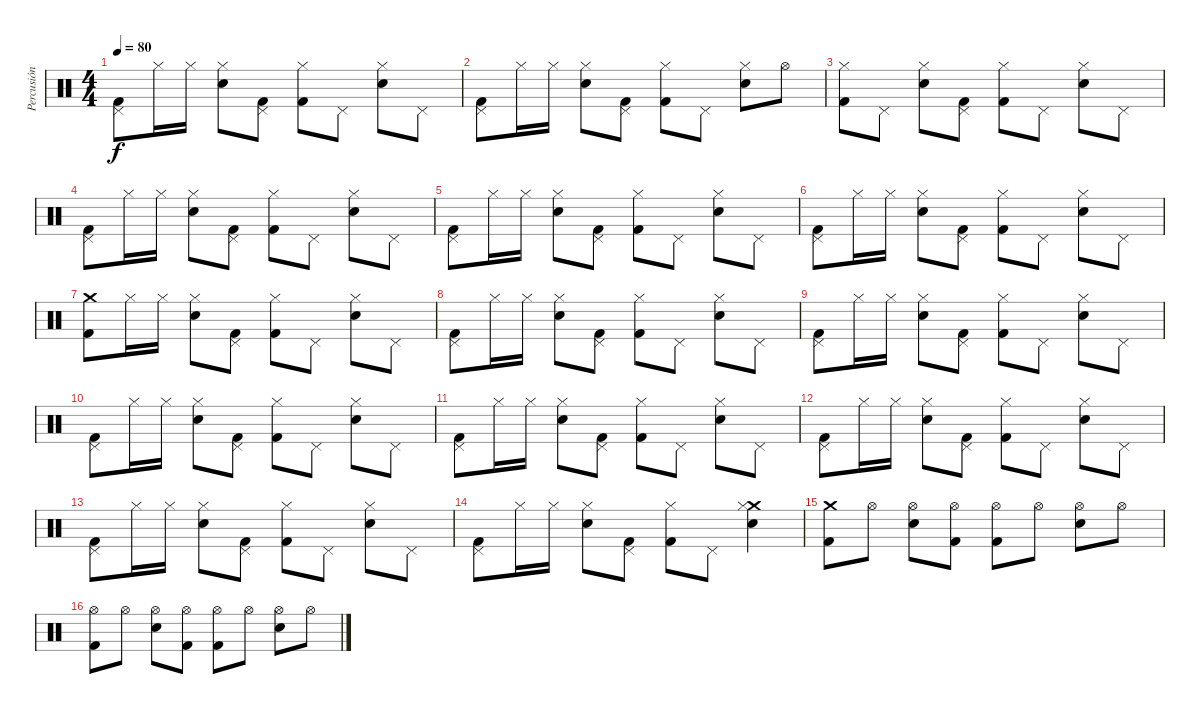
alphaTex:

\track ("Percusión" "Percusión") {instrument percussion}
\staff {score}
\articulation defaults
\ts (4 4)
\tempo 80
\clef neutral
\ks c
("Pedal Hi-Hat (hit)" "Kick (hit) 2").8{dy f} "Hi-Hat (closed)".16 "Hi-Hat (closed)".16 ("Hi-Hat (closed)" "Snare (hit) 2").8 ("Pedal Hi-Hat (hit)" "Kick (hit) 2").8 ("Hi-Hat (closed)" "Kick (hit) 2").8 "Pedal Hi-Hat (hit)".8 ("Hi-Hat (closed)" "Snare (hit) 2").8 "Pedal Hi-Hat (hit)".8 |
("Pedal Hi-Hat (hit)" "Kick (hit) 2").8 "Hi-Hat (closed)".16 "Hi-Hat (closed)".16 ("Hi-Hat (closed)" "Snare (hit) 2").8 ("Pedal Hi-Hat (hit)" "Kick (hit) 2").8 ("Hi-Hat (closed)" "Kick (hit) 2").8 "Pedal Hi-Hat (hit)".8 ("Hi-Hat (closed)" "Snare (hit) 2").8 "Hi-Hat (open)".8 |
("Hi-Hat (closed)" "Kick (hit) 2").8 "Pedal Hi-Hat (hit)".8 ("Hi-Hat (closed)" "Snare (hit) 2").8 ("Pedal Hi-Hat (hit)" "Kick (hit) 2").8 ("Hi-Hat (closed)" "Kick (hit) 2").8 "Pedal Hi-Hat (hit)".8 ("Hi-Hat (closed)" "Snare (hit) 2").8 "Pedal Hi-Hat (hit)".8 |
("Pedal Hi-Hat (hit)" "Kick (hit) 2").8 "Hi-Hat (closed)".16 "Hi-Hat (closed)".16 ("Hi-Hat (closed)" "Snare (hit) 2").8 ("Pedal Hi-Hat (hit)" "Kick (hit) 2").8 ("Hi-Hat (closed)" "Kick (hit) 2").8 "Pedal Hi-Hat (hit)".8 ("Hi-Hat (closed)" "Snare (hit) 2").8 "Pedal Hi-Hat (hit)".8 |
("Pedal Hi-Hat (hit)" "Kick (hit) 2").8 "Hi-Hat (closed)".16 "Hi-Hat (closed)".16 ("Hi-Hat (closed)" "Snare (hit) 2").8 ("Pedal Hi-Hat (hit)" "Kick (hit) 2").8 ("Hi-Hat (closed)" "Kick (hit) 2").8 "Pedal Hi-Hat (hit)".8 ("Hi-Hat (closed)" "Snare (hit) 2").8 "Pedal Hi-Hat (hit)".8 |
("Pedal Hi-Hat (hit)" "Kick (hit) 2").8 "Hi-Hat (closed)".16 "Hi-Hat (closed)".16 ("Hi-Hat (closed)" "Snare (hit) 2").8 ("Pedal Hi-Hat (hit)" "Kick (hit) 2").8 ("Hi-Hat (closed)" "Kick (hit) 2").8 "Pedal Hi-Hat (hit)".8 ("Hi-Hat (closed)" "Snare (hit) 2").8 "Pedal Hi-Hat (hit)".8 |
("Crash medium (hit)" "Kick (hit) 2").8 "Hi-Hat (closed)".16 "Hi-Hat (closed)".16 ("Hi-Hat (closed)" "Snare (hit) 2").8 ("Pedal Hi-Hat (hit)" "Kick (hit) 2").8 ("Hi-Hat (closed)" "Kick (hit) 2").8 "Pedal Hi-Hat (hit)".8 ("Hi-Hat (closed)" "Snare (hit) 2").8 "Pedal Hi-Hat (hit)".8 |
("Pedal Hi-Hat (hit)" "Kick (hit) 2").8 "Hi-Hat (closed)".16 "Hi-Hat (closed)".16 ("Hi-Hat (closed)" "Snare (hit) 2").8 ("Pedal Hi-Hat (hit)" "Kick (hit) 2").8 ("Hi-Hat (closed)" "Kick (hit) 2").8 "Pedal Hi-Hat (hit)".8 ("Hi-Hat (closed)" "Snare (hit) 2").8 "Pedal Hi-Hat (hit)".8 |
("Pedal Hi-Hat (hit)" "Kick (hit) 2").8 "Hi-Hat (closed)".16 "Hi-Hat (closed)".16 ("Hi-Hat (closed)" "Snare (hit) 2").8 ("Pedal Hi-Hat (hit)" "Kick (hit) 2").8 ("Hi-Hat (closed)" "Kick (hit) 2").8 "Pedal Hi-Hat (hit)".8 ("Hi-Hat (closed)" "Snare (hit) 2").8 "Pedal Hi-Hat (hit)".8 |
("Pedal Hi-Hat (hit)" "Kick (hit) 2").8 "Hi-Hat (closed)".16 "Hi-Hat (closed)".16 ("Hi-Hat (closed)" "Snare (hit) 2").8 ("Pedal Hi-Hat (hit)" "Kick (hit) 2").8 ("Hi-Hat (closed)" "Kick (hit) 2").8 "Pedal Hi-Hat (hit)".8 ("Hi-Hat (closed)" "Snare (hit) 2").8 "Pedal Hi-Hat (hit)".8 |
("Pedal Hi-Hat (hit)" "Kick (hit) 2").8 "Hi-Hat (closed)".16 "Hi-Hat (closed)".16 ("Hi-Hat (closed)" "Snare (hit) 2").8 ("Pedal Hi-Hat (hit)" "Kick (hit) 2").8 ("Hi-Hat (closed)" "Kick (hit) 2").8 "Pedal Hi-Hat (hit)".8 ("Hi-Hat (closed)" "Snare (hit) 2").8 "Pedal Hi-Hat (hit)".8 |
("Pedal Hi-Hat (hit)" "Kick (hit) 2").8 "Hi-Hat (closed)".16 "Hi-Hat (closed)".16 ("Hi-Hat (closed)" "Snare (hit) 2").8 ("Pedal Hi-Hat (hit)" "Kick (hit) 2").8 ("Hi-Hat (closed)" "Kick (hit) 2").8 "Pedal Hi-Hat (hit)".8 ("Hi-Hat (closed)" "Snare (hit) 2").8 "Pedal Hi-Hat (hit)".8 |
("Pedal Hi-Hat (hit)" "Kick (hit) 2").8 "Hi-Hat (closed)".16 "Hi-Hat (closed)".16 ("Hi-Hat (closed)" "Snare (hit) 2").8 ("Pedal Hi-Hat (hit)" "Kick (hit) 2").8 ("Hi-Hat (closed)" "Kick (hit) 2").8 "Pedal Hi-Hat (hit)".8 ("Hi-Hat (closed)" "Snare (hit) 2").8 "Pedal Hi-Hat (hit)".8 |
("Pedal Hi-Hat (hit)" "Kick (hit) 2").8 "Hi-Hat (closed)".16 "Hi-Hat (closed)".16 ("Hi-Hat (closed)" "Snare (hit) 2").8 ("Pedal Hi-Hat (hit)" "Kick (hit) 2").8 ("Hi-Hat (closed)" "Kick (hit) 2").8 "Pedal Hi-Hat (hit)".8 ("Crash medium (hit)" "Hi-Hat (closed)" "Snare (hit) 2").4 |
("Crash medium (hit)" "Kick (hit) 2").8 "Hi-Hat (open)".8 ("Hi-Hat (open)" "Snare (hit) 2").8 ("Hi-Hat (open)" "Kick (hit) 2").8 ("Hi-Hat (open)" "Kick (hit) 2").8 "Hi-Hat (open)".8 ("Hi-Hat (open)" "Snare (hit) 2").8 "Hi-Hat (open)".8 |
("Hi-Hat (open)" "Kick (hit) 2").8 "Hi-Hat (open)".8 ("Hi-Hat (open)" "Snare (hit) 2").8 ("Hi-Hat (open)" "Kick (hit) 2").8 ("Hi-Hat (open)" "Kick (hit) 2").8 "Hi-Hat (open)".8 ("Hi-Hat (open)" "Snare (hit) 2").8 "Hi-Hat (open)".8
